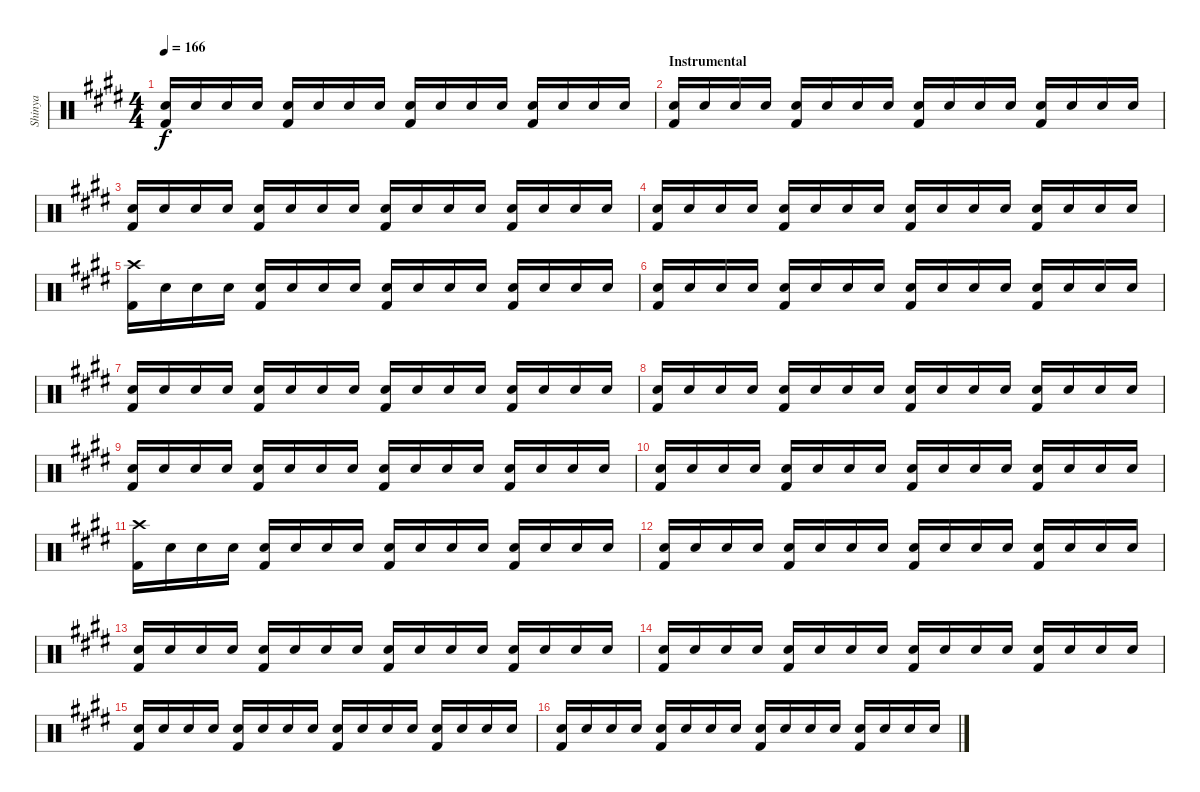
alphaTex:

\track ("Shinya" "Shinya") {instrument percussion}
\staff {score}
\articulation defaults
\ts (4 4)
\tempo 166
\clef neutral
\ks e
("Snare (hit) 2" "Kick (hit) 2").16{dy f} "Snare (hit) 2".16 "Snare (hit) 2".16 "Snare (hit) 2".16 ("Snare (hit) 2" "Kick (hit) 2").16 "Snare (hit) 2".16 "Snare (hit) 2".16 "Snare (hit) 2".16 ("Snare (hit) 2" "Kick (hit) 2").16 "Snare (hit) 2".16 "Snare (hit) 2".16 "Snare (hit) 2".16 ("Snare (hit) 2" "Kick (hit) 2").16 "Snare (hit) 2".16 "Snare (hit) 2".16 "Snare (hit) 2".16 |
\section ("" "Instrumental")
("Snare (hit) 2" "Kick (hit) 2").16 "Snare (hit) 2".16 "Snare (hit) 2".16 "Snare (hit) 2".16 ("Snare (hit) 2" "Kick (hit) 2").16 "Snare (hit) 2".16 "Snare (hit) 2".16 "Snare (hit) 2".16 ("Snare (hit) 2" "Kick (hit) 2").16 "Snare (hit) 2".16 "Snare (hit) 2".16 "Snare (hit) 2".16 ("Snare (hit) 2" "Kick (hit) 2").16 "Snare (hit) 2".16 "Snare (hit) 2".16 "Snare (hit) 2".16 |
("Snare (hit) 2" "Kick (hit) 2").16 "Snare (hit) 2".16 "Snare (hit) 2".16 "Snare (hit) 2".16 ("Snare (hit) 2" "Kick (hit) 2").16 "Snare (hit) 2".16 "Snare (hit) 2".16 "Snare (hit) 2".16 ("Snare (hit) 2" "Kick (hit) 2").16 "Snare (hit) 2".16 "Snare (hit) 2".16 "Snare (hit) 2".16 ("Snare (hit) 2" "Kick (hit) 2").16 "Snare (hit) 2".16 "Snare (hit) 2".16 "Snare (hit) 2".16 |
("Snare (hit) 2" "Kick (hit) 2").16 "Snare (hit) 2".16 "Snare (hit) 2".16 "Snare (hit) 2".16 ("Snare (hit) 2" "Kick (hit) 2").16 "Snare (hit) 2".16 "Snare (hit) 2".16 "Snare (hit) 2".16 ("Snare (hit) 2" "Kick (hit) 2").16 "Snare (hit) 2".16 "Snare (hit) 2".16 "Snare (hit) 2".16 ("Snare (hit) 2" "Kick (hit) 2").16 "Snare (hit) 2".16 "Snare (hit) 2".16 "Snare (hit) 2".16 |
("Crash high (hit)" "Kick (hit) 2").16 "Snare (hit) 2".16 "Snare (hit) 2".16 "Snare (hit) 2".16 ("Snare (hit) 2" "Kick (hit) 2").16 "Snare (hit) 2".16 "Snare (hit) 2".16 "Snare (hit) 2".16 ("Snare (hit) 2" "Kick (hit) 2").16 "Snare (hit) 2".16 "Snare (hit) 2".16 "Snare (hit) 2".16 ("Snare (hit) 2" "Kick (hit) 2").16 "Snare (hit) 2".16 "Snare (hit) 2".16 "Snare (hit) 2".16 |
("Snare (hit) 2" "Kick (hit) 2").16 "Snare (hit) 2".16 "Snare (hit) 2".16 "Snare (hit) 2".16 ("Snare (hit) 2" "Kick (hit) 2").16 "Snare (hit) 2".16 "Snare (hit) 2".16 "Snare (hit) 2".16 ("Snare (hit) 2" "Kick (hit) 2").16 "Snare (hit) 2".16 "Snare (hit) 2".16 "Snare (hit) 2".16 ("Snare (hit) 2" "Kick (hit) 2").16 "Snare (hit) 2".16 "Snare (hit) 2".16 "Snare (hit) 2".16 |
("Snare (hit) 2" "Kick (hit) 2").16 "Snare (hit) 2".16 "Snare (hit) 2".16 "Snare (hit) 2".16 ("Snare (hit) 2" "Kick (hit) 2").16 "Snare (hit) 2".16 "Snare (hit) 2".16 "Snare (hit) 2".16 ("Snare (hit) 2" "Kick (hit) 2").16 "Snare (hit) 2".16 "Snare (hit) 2".16 "Snare (hit) 2".16 ("Snare (hit) 2" "Kick (hit) 2").16 "Snare (hit) 2".16 "Snare (hit) 2".16 "Snare (hit) 2".16 |
("Snare (hit) 2" "Kick (hit) 2").16 "Snare (hit) 2".16 "Snare (hit) 2".16 "Snare (hit) 2".16 ("Snare (hit) 2" "Kick (hit) 2").16 "Snare (hit) 2".16 "Snare (hit) 2".16 "Snare (hit) 2".16 ("Snare (hit) 2" "Kick (hit) 2").16 "Snare (hit) 2".16 "Snare (hit) 2".16 "Snare (hit) 2".16 ("Snare (hit) 2" "Kick (hit) 2").16 "Snare (hit) 2".16 "Snare (hit) 2".16 "Snare (hit) 2".16 |
("Snare (hit) 2" "Kick (hit) 2").16 "Snare (hit) 2".16 "Snare (hit) 2".16 "Snare (hit) 2".16 ("Snare (hit) 2" "Kick (hit) 2").16 "Snare (hit) 2".16 "Snare (hit) 2".16 "Snare (hit) 2".16 ("Snare (hit) 2" "Kick (hit) 2").16 "Snare (hit) 2".16 "Snare (hit) 2".16 "Snare (hit) 2".16 ("Snare (hit) 2" "Kick (hit) 2").16 "Snare (hit) 2".16 "Snare (hit) 2".16 "Snare (hit) 2".16 |
("Snare (hit) 2" "Kick (hit) 2").16 "Snare (hit) 2".16 "Snare (hit) 2".16 "Snare (hit) 2".16 ("Snare (hit) 2" "Kick (hit) 2").16 "Snare (hit) 2".16 "Snare (hit) 2".16 "Snare (hit) 2".16 ("Snare (hit) 2" "Kick (hit) 2").16 "Snare (hit) 2".16 "Snare (hit) 2".16 "Snare (hit) 2".16 ("Snare (hit) 2" "Kick (hit) 2").16 "Snare (hit) 2".16 "Snare (hit) 2".16 "Snare (hit) 2".16 |
("Crash high (hit)" "Kick (hit) 2").16 "Snare (hit) 2".16 "Snare (hit) 2".16 "Snare (hit) 2".16 ("Snare (hit) 2" "Kick (hit) 2").16 "Snare (hit) 2".16 "Snare (hit) 2".16 "Snare (hit) 2".16 ("Snare (hit) 2" "Kick (hit) 2").16 "Snare (hit) 2".16 "Snare (hit) 2".16 "Snare (hit) 2".16 ("Snare (hit) 2" "Kick (hit) 2").16 "Snare (hit) 2".16 "Snare (hit) 2".16 "Snare (hit) 2".16 |
("Snare (hit) 2" "Kick (hit) 2").16 "Snare (hit) 2".16 "Snare (hit) 2".16 "Snare (hit) 2".16 ("Snare (hit) 2" "Kick (hit) 2").16 "Snare (hit) 2".16 "Snare (hit) 2".16 "Snare (hit) 2".16 ("Snare (hit) 2" "Kick (hit) 2").16 "Snare (hit) 2".16 "Snare (hit) 2".16 "Snare (hit) 2".16 ("Snare (hit) 2" "Kick (hit) 2").16 "Snare (hit) 2".16 "Snare (hit) 2".16 "Snare (hit) 2".16 |
("Snare (hit) 2" "Kick (hit) 2").16 "Snare (hit) 2".16 "Snare (hit) 2".16 "Snare (hit) 2".16 ("Snare (hit) 2" "Kick (hit) 2").16 "Snare (hit) 2".16 "Snare (hit) 2".16 "Snare (hit) 2".16 ("Snare (hit) 2" "Kick (hit) 2").16 "Snare (hit) 2".16 "Snare (hit) 2".16 "Snare (hit) 2".16 ("Snare (hit) 2" "Kick (hit) 2").16 "Snare (hit) 2".16 "Snare (hit) 2".16 "Snare (hit) 2".16 |
("Snare (hit) 2" "Kick (hit) 2").16 "Snare (hit) 2".16 "Snare (hit) 2".16 "Snare (hit) 2".16 ("Snare (hit) 2" "Kick (hit) 2").16 "Snare (hit) 2".16 "Snare (hit) 2".16 "Snare (hit) 2".16 ("Snare (hit) 2" "Kick (hit) 2").16 "Snare (hit) 2".16 "Snare (hit) 2".16 "Snare (hit) 2".16 ("Snare (hit) 2" "Kick (hit) 2").16 "Snare (hit) 2".16 "Snare (hit) 2".16 "Snare (hit) 2".16 |
("Snare (hit) 2" "Kick (hit) 2").16 "Snare (hit) 2".16 "Snare (hit) 2".16 "Snare (hit) 2".16 ("Snare (hit) 2" "Kick (hit) 2").16 "Snare (hit) 2".16 "Snare (hit) 2".16 "Snare (hit) 2".16 ("Snare (hit) 2" "Kick (hit) 2").16 "Snare (hit) 2".16 "Snare (hit) 2".16 "Snare (hit) 2".16 ("Snare (hit) 2" "Kick (hit) 2").16 "Snare (hit) 2".16 "Snare (hit) 2".16 "Snare (hit) 2".16 |
("Snare (hit) 2" "Kick (hit) 2").16 "Snare (hit) 2".16 "Snare (hit) 2".16 "Snare (hit) 2".16 ("Snare (hit) 2" "Kick (hit) 2").16 "Snare (hit) 2".16 "Snare (hit) 2".16 "Snare (hit) 2".16 ("Snare (hit) 2" "Kick (hit) 2").16 "Snare (hit) 2".16 "Snare (hit) 2".16 "Snare (hit) 2".16 ("Snare (hit) 2" "Kick (hit) 2").16 "Snare (hit) 2".16 "Snare (hit) 2".16 "Snare (hit) 2".16
